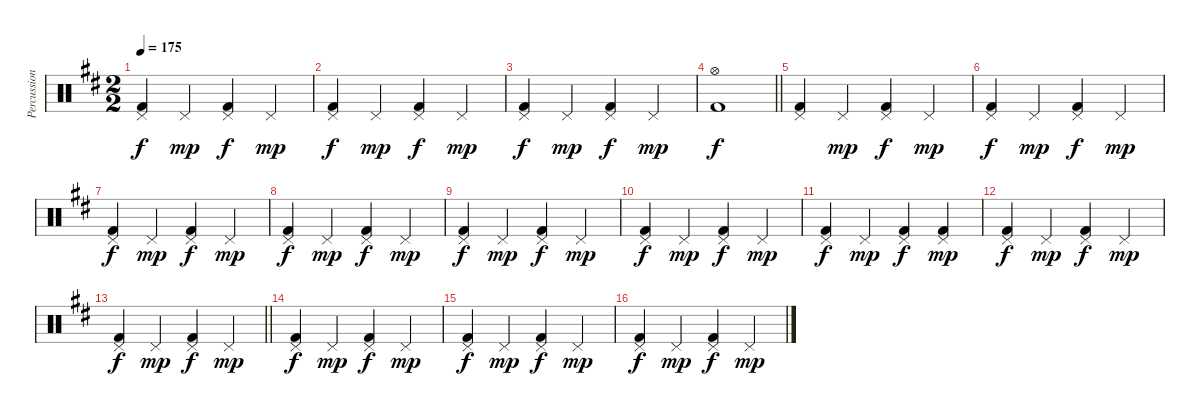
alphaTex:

\track ("Percussion" "Percussion") {instrument percussion}
\staff {score}
\articulation defaults
\ts (2 2)
\tempo 175
\clef neutral
\ks d
("Pedal Hi-Hat (hit)" "Kick (hit) 2").4{dy f} "Pedal Hi-Hat (hit)".4{dy mp} ("Pedal Hi-Hat (hit)" "Kick (hit) 2").4{dy f} "Pedal Hi-Hat (hit)".4{dy mp} |
("Pedal Hi-Hat (hit)" "Kick (hit) 2").4{dy f} "Pedal Hi-Hat (hit)".4{dy mp} ("Pedal Hi-Hat (hit)" "Kick (hit) 2").4{dy f} "Pedal Hi-Hat (hit)".4{dy mp} |
("Pedal Hi-Hat (hit)" "Kick (hit) 2").4{dy f} "Pedal Hi-Hat (hit)".4{dy mp} ("Pedal Hi-Hat (hit)" "Kick (hit) 2").4{dy f} "Pedal Hi-Hat (hit)".4{dy mp} |
\barLineRight lightlight
("Hi-Hat (open)" "Kick (hit) 2").1{dy f} |
("Pedal Hi-Hat (hit)" "Kick (hit) 2").4 "Pedal Hi-Hat (hit)".4{dy mp} ("Pedal Hi-Hat (hit)" "Kick (hit) 2").4{dy f} "Pedal Hi-Hat (hit)".4{dy mp} |
("Pedal Hi-Hat (hit)" "Kick (hit) 2").4{dy f} "Pedal Hi-Hat (hit)".4{dy mp} ("Pedal Hi-Hat (hit)" "Kick (hit) 2").4{dy f} "Pedal Hi-Hat (hit)".4{dy mp} |
("Pedal Hi-Hat (hit)" "Kick (hit) 2").4{dy f} "Pedal Hi-Hat (hit)".4{dy mp} ("Pedal Hi-Hat (hit)" "Kick (hit) 2").4{dy f} "Pedal Hi-Hat (hit)".4{dy mp} |
("Pedal Hi-Hat (hit)" "Kick (hit) 2").4{dy f} "Pedal Hi-Hat (hit)".4{dy mp} ("Pedal Hi-Hat (hit)" "Kick (hit) 2").4{dy f} "Pedal Hi-Hat (hit)".4{dy mp} |
("Pedal Hi-Hat (hit)" "Kick (hit) 2").4{dy f} "Pedal Hi-Hat (hit)".4{dy mp} ("Pedal Hi-Hat (hit)" "Kick (hit) 2").4{dy f} "Pedal Hi-Hat (hit)".4{dy mp} |
("Pedal Hi-Hat (hit)" "Kick (hit) 2").4{dy f} "Pedal Hi-Hat (hit)".4{dy mp} ("Pedal Hi-Hat (hit)" "Kick (hit) 2").4{dy f} "Pedal Hi-Hat (hit)".4{dy mp} |
("Pedal Hi-Hat (hit)" "Kick (hit) 2").4{dy f} "Pedal Hi-Hat (hit)".4{dy mp} ("Pedal Hi-Hat (hit)" "Kick (hit) 2").4{dy f} ("Pedal Hi-Hat (hit)" "Kick (hit) 2").4{dy mp} |
("Pedal Hi-Hat (hit)" "Kick (hit) 2").4{dy f} "Pedal Hi-Hat (hit)".4{dy mp} ("Pedal Hi-Hat (hit)" "Kick (hit) 2").4{dy f} "Pedal Hi-Hat (hit)".4{dy mp} |
\barLineRight lightlight
("Pedal Hi-Hat (hit)" "Kick (hit) 2").4{dy f} "Pedal Hi-Hat (hit)".4{dy mp} ("Pedal Hi-Hat (hit)" "Kick (hit) 2").4{dy f} "Pedal Hi-Hat (hit)".4{dy mp} |
("Pedal Hi-Hat (hit)" "Kick (hit) 2").4{dy f} "Pedal Hi-Hat (hit)".4{dy mp} ("Pedal Hi-Hat (hit)" "Kick (hit) 2").4{dy f} "Pedal Hi-Hat (hit)".4{dy mp} |
("Pedal Hi-Hat (hit)" "Kick (hit) 2").4{dy f} "Pedal Hi-Hat (hit)".4{dy mp} ("Pedal Hi-Hat (hit)" "Kick (hit) 2").4{dy f} "Pedal Hi-Hat (hit)".4{dy mp} |
("Pedal Hi-Hat (hit)" "Kick (hit) 2").4{dy f} "Pedal Hi-Hat (hit)".4{dy mp} ("Pedal Hi-Hat (hit)" "Kick (hit) 2").4{dy f} "Pedal Hi-Hat (hit)".4{dy mp}
